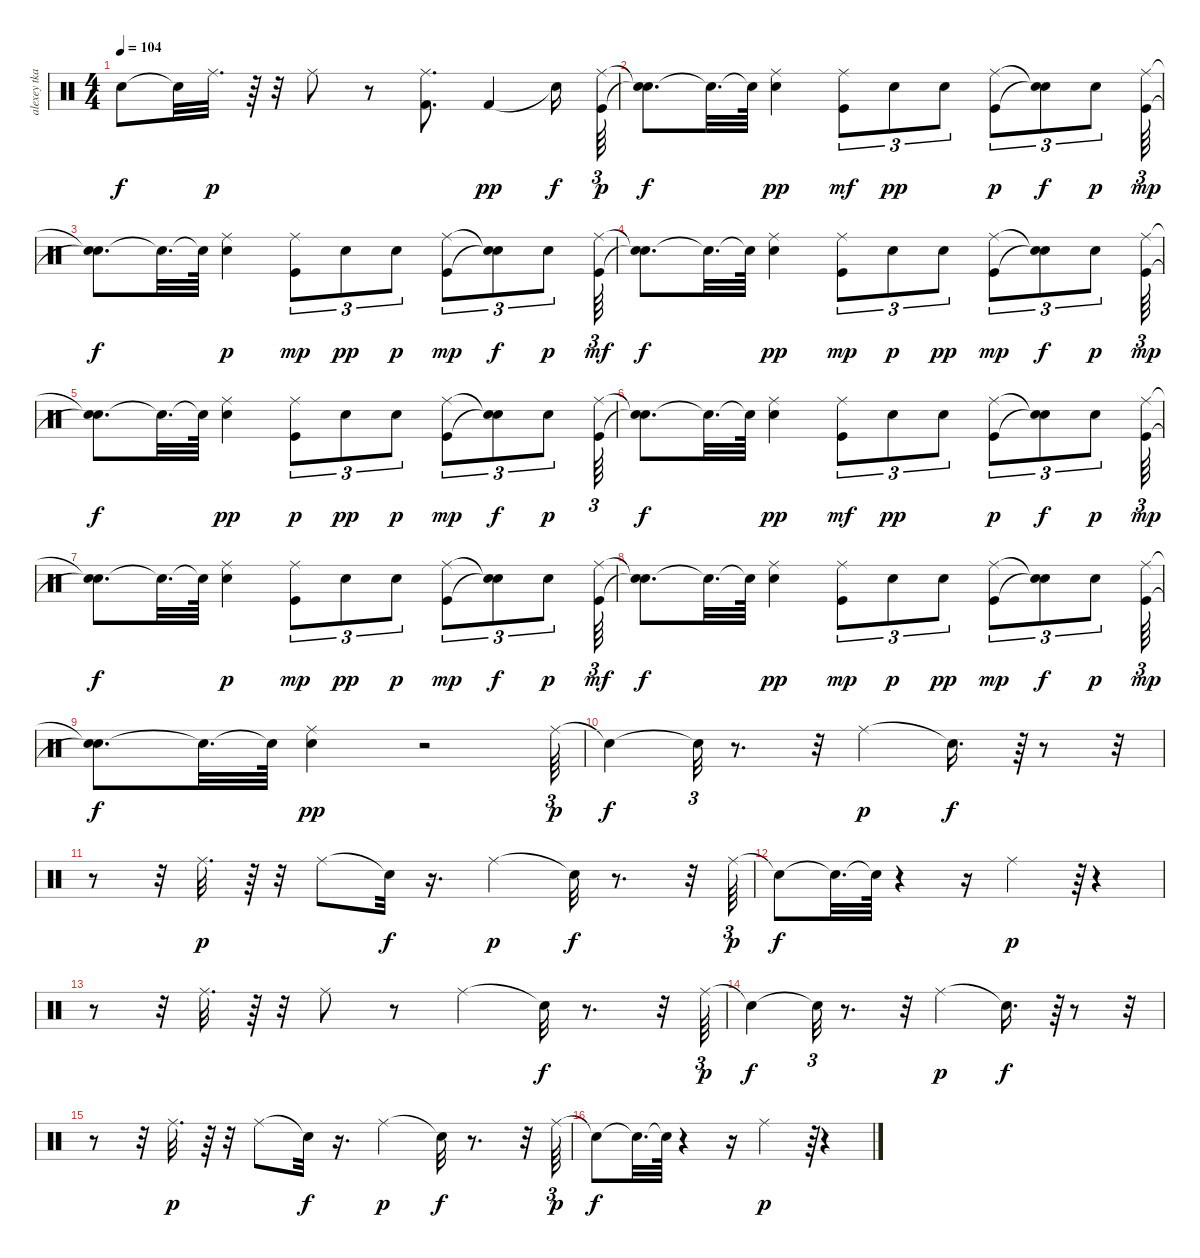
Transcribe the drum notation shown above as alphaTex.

\track ("alexey tkachevsky" "alexey tka") {instrument percussion}
\staff {score}
\articulation defaults
\ts (4 4)
\tempo 104
\clef neutral
\ks c "Snare (hit)"{t}.8{dy f} "Snare (hit)"{t}.32 "Ride (middle)".32{d dy p}
r.64 r.32 "Ride (middle)".8 r.8 ("Kick (hit) 2" "Ride (middle)").8{d} "Kick (hit) 2".4{dy pp} "Snare (hit)"{t}.16{dy f} ("Ride (middle)" "Kick (hit)").64{tu (3 2) dy p} |
("Snare (hit)"{t} "Snare (hit)"{t}).8{d dy f} "Snare (hit)"{t}.32{d} "Snare (hit)"{t}.64 ("Snare (hit)" "Ride (middle)").4{dy pp} ("Kick (hit)" "Ride (middle)").8{tu (3 2) dy mf} "Snare (hit)".8{tu (3 2) dy pp} "Snare (hit)".8{tu (3 2)} ("Kick (hit)" "Ride (middle)").8{tu (3 2) dy p} ("Snare (hit)"{t} "Snare (hit)"{t}).8{tu (3 2) dy f} "Snare (hit)".8{tu (3 2) dy p} ("Kick (hit)" "Ride (middle)").64{tu (3 2) dy mp} |
("Snare (hit)"{t} "Snare (hit)"{t}).8{d dy f} "Snare (hit)"{t}.32{d} "Snare (hit)"{t}.64 ("Ride (middle)" "Snare (hit)").4{dy p} ("Ride (middle)" "Kick (hit)").8{tu (3 2) dy mp} "Snare (hit)".8{tu (3 2) dy pp} "Snare (hit)".8{tu (3 2) dy p} ("Ride (middle)" "Kick (hit)").8{tu (3 2) dy mp} ("Snare (hit)"{t} "Snare (hit)"{t}).8{tu (3 2) dy f} "Snare (hit)".8{tu (3 2) dy p} ("Ride (middle)" "Kick (hit)").64{tu (3 2) dy mf} |
("Snare (hit)"{t} "Snare (hit)"{t}).8{d dy f} "Snare (hit)"{t}.32{d} "Snare (hit)"{t}.64 ("Ride (middle)" "Snare (hit)").4{dy pp} ("Ride (middle)" "Kick (hit)").8{tu (3 2) dy mp} "Snare (hit)".8{tu (3 2) dy p} "Snare (hit)".8{tu (3 2) dy pp} ("Ride (middle)" "Kick (hit)").8{tu (3 2) dy mp} ("Snare (hit)"{t} "Snare (hit)"{t}).8{tu (3 2) dy f} "Snare (hit)".8{tu (3 2) dy p} ("Ride (middle)" "Kick (hit)").64{tu (3 2) dy mp} |
("Snare (hit)"{t} "Snare (hit)"{t}).8{d dy f} "Snare (hit)"{t}.32{d} "Snare (hit)"{t}.64 ("Ride (middle)" "Snare (hit)").4{dy pp} ("Ride (middle)" "Kick (hit)").8{tu (3 2) dy p} "Snare (hit)".8{tu (3 2) dy pp} "Snare (hit)".8{tu (3 2) dy p} ("Ride (middle)" "Kick (hit)").8{tu (3 2) dy mp} ("Snare (hit)"{t} "Snare (hit)"{t}).8{tu (3 2) dy f} "Snare (hit)".8{tu (3 2) dy p} ("Ride (middle)" "Kick (hit)").64{tu (3 2)} |
("Snare (hit)"{t} "Snare (hit)"{t}).8{d dy f} "Snare (hit)"{t}.32{d} "Snare (hit)"{t}.64 ("Snare (hit)" "Ride (middle)").4{dy pp} ("Kick (hit)" "Ride (middle)").8{tu (3 2) dy mf} "Snare (hit)".8{tu (3 2) dy pp} "Snare (hit)".8{tu (3 2)} ("Kick (hit)" "Ride (middle)").8{tu (3 2) dy p} ("Snare (hit)"{t} "Snare (hit)"{t}).8{tu (3 2) dy f} "Snare (hit)".8{tu (3 2) dy p} ("Kick (hit)" "Ride (middle)").64{tu (3 2) dy mp} |
("Snare (hit)"{t} "Snare (hit)"{t}).8{d dy f} "Snare (hit)"{t}.32{d} "Snare (hit)"{t}.64 ("Ride (middle)" "Snare (hit)").4{dy p} ("Ride (middle)" "Kick (hit)").8{tu (3 2) dy mp} "Snare (hit)".8{tu (3 2) dy pp} "Snare (hit)".8{tu (3 2) dy p} ("Ride (middle)" "Kick (hit)").8{tu (3 2) dy mp} ("Snare (hit)"{t} "Snare (hit)"{t}).8{tu (3 2) dy f} "Snare (hit)".8{tu (3 2) dy p} ("Ride (middle)" "Kick (hit)").64{tu (3 2) dy mf} |
("Snare (hit)"{t} "Snare (hit)"{t}).8{d dy f} "Snare (hit)"{t}.32{d} "Snare (hit)"{t}.64 ("Ride (middle)" "Snare (hit)").4{dy pp} ("Ride (middle)" "Kick (hit)").8{tu (3 2) dy mp} "Snare (hit)".8{tu (3 2) dy p} "Snare (hit)".8{tu (3 2) dy pp} ("Ride (middle)" "Kick (hit)").8{tu (3 2) dy mp} ("Snare (hit)"{t} "Snare (hit)"{t}).8{tu (3 2) dy f} "Snare (hit)".8{tu (3 2) dy p} ("Ride (middle)" "Kick (hit)").64{tu (3 2) dy mp} |
("Snare (hit)"{t} "Snare (hit)"{t}).8{d dy f} "Snare (hit)"{t}.32{d} "Snare (hit)"{t}.64 ("Ride (middle)" "Snare (hit)").4{dy pp} r.2 "Ride (middle)".64{tu (3 2) dy p} |
"Snare (hit)"{t}.4{dy f} "Snare (hit)"{t}.32{tu (3 2)} r.8{d} r.32 "Ride (middle)".4{dy p} "Snare (hit)"{t}.16{d dy f} r.64{tu (3 2)} r.8 r.32 |
r.8 r.32 "Ride (middle)".32{d dy p} r.64 r.32 "Ride (middle)".8 "Snare (hit)"{t}.32{dy f} r.16{d} "Ride (middle)".4{dy p} "Snare (hit)"{t}.32{dy f} r.8{d} r.32 "Ride (middle)".64{tu (3 2) dy p} |
"Snare (hit)"{t}.8{dy f} "Snare (hit)"{t}.32{d} "Snare (hit)"{t}.64 r.4 r.16 "Ride (middle)".4{dy p} r.64{tu (3 2)} r.4 |
r.8 r.32 "Ride (middle)".32{d} r.64 r.32 "Ride (middle)".8 r.8 "Ride (middle)".4 "Snare (hit)"{t}.32{dy f} r.8{d} r.32 "Ride (middle)".64{tu (3 2) dy p} |
"Snare (hit)"{t}.4{dy f} "Snare (hit)"{t}.32{tu (3 2)} r.8{d} r.32 "Ride (middle)".4{dy p} "Snare (hit)"{t}.16{d dy f} r.64{tu (3 2)} r.8 r.32 |
r.8 r.32 "Ride (middle)".32{d dy p} r.64 r.32 "Ride (middle)".8 "Snare (hit)"{t}.32{dy f} r.16{d} "Ride (middle)".4{dy p} "Snare (hit)"{t}.32{dy f} r.8{d} r.32 "Ride (middle)".64{tu (3 2) dy p} |
"Snare (hit)"{t}.8{dy f} "Snare (hit)"{t}.32{d} "Snare (hit)"{t}.64 r.4 r.16 "Ride (middle)".4{dy p} r.64{tu (3 2)} r.4
